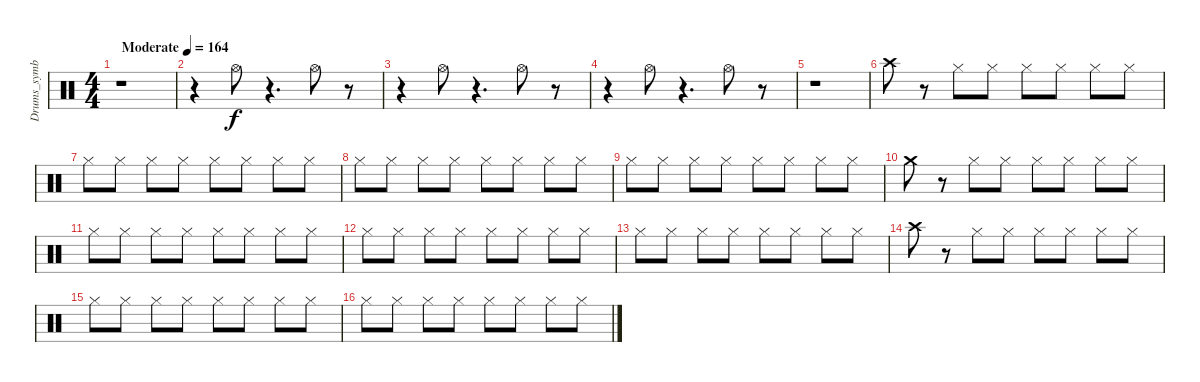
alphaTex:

\track ("Drums_symbal" "Drums_symb") {instrument percussion}
\staff {score}
\articulation defaults
\ts (4 4)
\tempo (164 "Moderate")
\clef neutral
\ks c
r.1{dy f} |
r.4 "Hi-Hat (open)".8 r.4{d} "Hi-Hat (open)".8 r.8 |
r.4 "Hi-Hat (open)".8 r.4{d} "Hi-Hat (open)".8 r.8 |
r.4 "Hi-Hat (open)".8 r.4{d} "Hi-Hat (open)".8 r.8 |
r.1 |
"Crash high (hit)".8 r.8 "Hi-Hat (closed)".8 "Hi-Hat (closed)".8 "Hi-Hat (closed)".8 "Hi-Hat (closed)".8 "Hi-Hat (closed)".8 "Hi-Hat (closed)".8 |
"Hi-Hat (closed)".8 "Hi-Hat (closed)".8 "Hi-Hat (closed)".8 "Hi-Hat (closed)".8 "Hi-Hat (closed)".8 "Hi-Hat (closed)".8 "Hi-Hat (closed)".8 "Hi-Hat (closed)".8 |
"Hi-Hat (closed)".8 "Hi-Hat (closed)".8 "Hi-Hat (closed)".8 "Hi-Hat (closed)".8 "Hi-Hat (closed)".8 "Hi-Hat (closed)".8 "Hi-Hat (closed)".8 "Hi-Hat (closed)".8 |
"Hi-Hat (closed)".8 "Hi-Hat (closed)".8 "Hi-Hat (closed)".8 "Hi-Hat (closed)".8 "Hi-Hat (closed)".8 "Hi-Hat (closed)".8 "Hi-Hat (closed)".8 "Hi-Hat (closed)".8 |
"Crash medium (hit)".8 r.8 "Hi-Hat (closed)".8 "Hi-Hat (closed)".8 "Hi-Hat (closed)".8 "Hi-Hat (closed)".8 "Hi-Hat (closed)".8 "Hi-Hat (closed)".8 |
"Hi-Hat (closed)".8 "Hi-Hat (closed)".8 "Hi-Hat (closed)".8 "Hi-Hat (closed)".8 "Hi-Hat (closed)".8 "Hi-Hat (closed)".8 "Hi-Hat (closed)".8 "Hi-Hat (closed)".8 |
"Hi-Hat (closed)".8 "Hi-Hat (closed)".8 "Hi-Hat (closed)".8 "Hi-Hat (closed)".8 "Hi-Hat (closed)".8 "Hi-Hat (closed)".8 "Hi-Hat (closed)".8 "Hi-Hat (closed)".8 |
"Hi-Hat (closed)".8 "Hi-Hat (closed)".8 "Hi-Hat (closed)".8 "Hi-Hat (closed)".8 "Hi-Hat (closed)".8 "Hi-Hat (closed)".8 "Hi-Hat (closed)".8 "Hi-Hat (closed)".8 |
"Crash high (hit)".8 r.8 "Hi-Hat (closed)".8 "Hi-Hat (closed)".8 "Hi-Hat (closed)".8 "Hi-Hat (closed)".8 "Hi-Hat (closed)".8 "Hi-Hat (closed)".8 |
"Hi-Hat (closed)".8 "Hi-Hat (closed)".8 "Hi-Hat (closed)".8 "Hi-Hat (closed)".8 "Hi-Hat (closed)".8 "Hi-Hat (closed)".8 "Hi-Hat (closed)".8 "Hi-Hat (closed)".8 |
"Hi-Hat (closed)".8 "Hi-Hat (closed)".8 "Hi-Hat (closed)".8 "Hi-Hat (closed)".8 "Hi-Hat (closed)".8 "Hi-Hat (closed)".8 "Hi-Hat (closed)".8 "Hi-Hat (closed)".8
